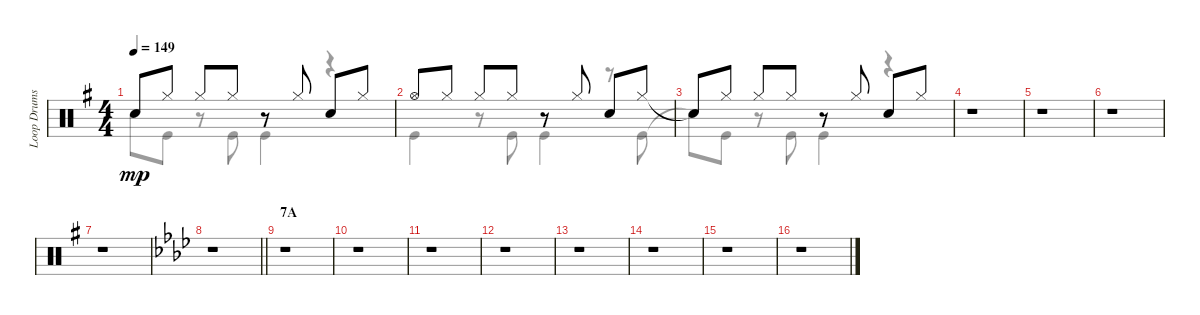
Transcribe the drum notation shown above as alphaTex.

\track ("Loop Drums" "Loop Drums") {instrument percussion}
\staff {score}
\articulation defaults
\voice
\ts (4 4)
\tempo 149
\clef neutral
\ks g "Snare (hit)"{t}.8{dy mp} "Hi-Hat (closed)".8 "Hi-Hat (closed)".8 "Hi-Hat (closed)".8
r.8 "Hi-Hat (closed)".8 "Electric Snare (hit)".8 "Hi-Hat (closed)".8 |
"Hi-Hat (open)".8 "Hi-Hat (closed)".8 "Hi-Hat (closed)".8 "Hi-Hat (closed)".8 r.8 "Hi-Hat (closed)".8 "Electric Snare (hit)".8 "Hi-Hat (closed)".8 |
"Snare (hit)"{t}.8 "Hi-Hat (closed)".8 "Hi-Hat (closed)".8 "Hi-Hat (closed)".8 r.8 "Hi-Hat (closed)".8 "Electric Snare (hit)".8 "Hi-Hat (closed)".8 |
r.1 |
r.1 |
r.1 |
r.1 |
\barLineRight lightlight
\ks ab
r.1 |
\section ("" "7A")
r.1 |
r.1 |
r.1 |
r.1 |
r.1 |
r.1 |
r.1 |
r.1
\voice
\clef neutral
\ottava regular
\simile none
\ks g "Snare (hit)"{t}.8{dy mp} "Kick (hit)".8
r.8 "Kick (hit)".8 "Kick (hit)".4 r.4 |
"Kick (hit)".4 r.8 "Kick (hit)".8 "Kick (hit)".4 r.8 "Kick (hit)".8 |
"Snare (hit)"{t}.8 "Kick (hit)".8 r.8 "Kick (hit)".8 "Kick (hit)".4 r.4 |
r.1 |
r.1 |
r.1 |
r.1 |
\barLineRight lightlight
\ks ab
r.1 |
r.1 |
r.1 |
r.1 |
r.1 |
r.1 |
r.1 |
r.1 |
r.1
